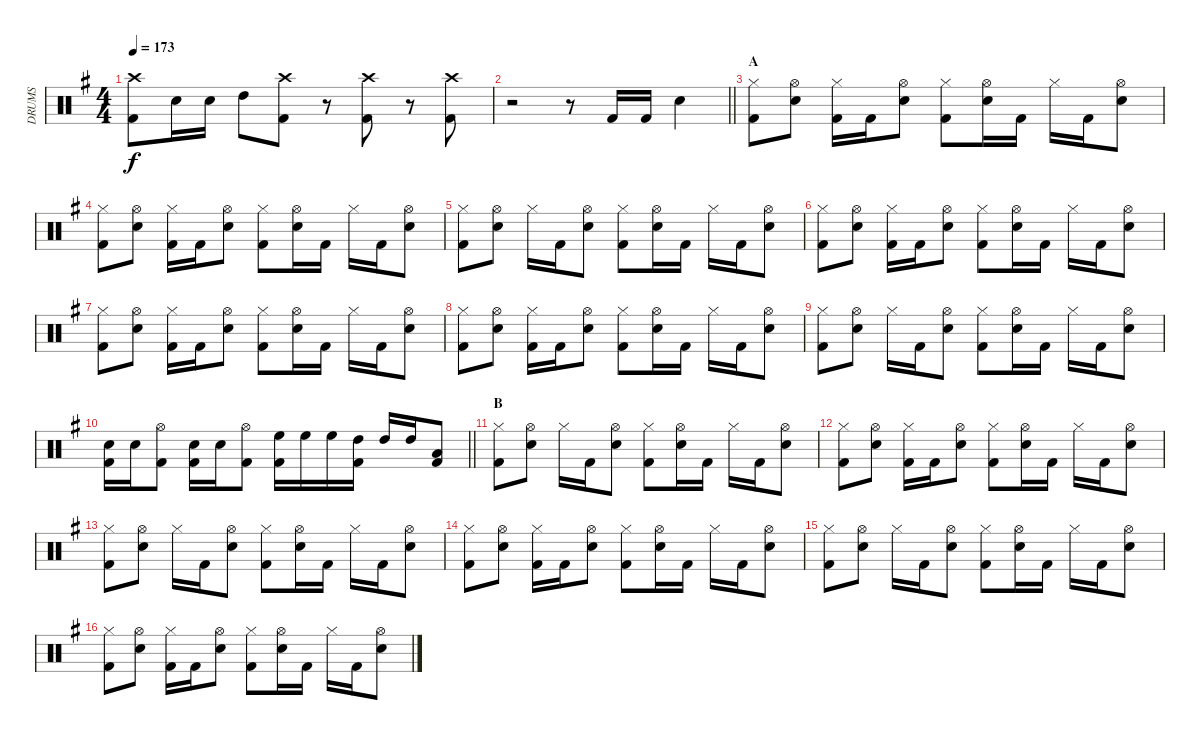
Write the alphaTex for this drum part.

\track ("DRUMS" "DRUMS") {instrument percussion}
\staff {score}
\articulation defaults
\ts (4 4)
\tempo 173
\clef neutral
\ks g
("Crash high (hit)" "Kick (hit) 2").8{dy f} "Snare (hit) 2".16 "Snare (hit) 2".16 "High Tom (hit)".8 ("Crash high (hit)" "Kick (hit) 2").8 r.8 ("Crash high (hit)" "Kick (hit) 2").8 r.8 ("Crash high (hit)" "Kick (hit) 2").8 |
\barLineRight lightlight
r.2 r.8 "Kick (hit) 2".16 "Kick (hit) 2".16 "Snare (hit) 2".4 |
\section ("" "A")
("Hi-Hat (closed)" "Kick (hit) 2").8 ("Hi-Hat (open)" "Snare (hit) 2").8 ("Hi-Hat (closed)" "Kick (hit) 2").16 "Kick (hit) 2".16 ("Hi-Hat (open)" "Snare (hit) 2").8 ("Hi-Hat (closed)" "Kick (hit) 2").8 ("Hi-Hat (open)" "Snare (hit) 2").16 "Kick (hit) 2".16 "Hi-Hat (closed)".16 "Kick (hit) 2".16 ("Hi-Hat (open)" "Snare (hit) 2").8 |
("Hi-Hat (closed)" "Kick (hit) 2").8 ("Hi-Hat (open)" "Snare (hit) 2").8 ("Hi-Hat (closed)" "Kick (hit) 2").16 "Kick (hit) 2".16 ("Hi-Hat (open)" "Snare (hit) 2").8 ("Hi-Hat (closed)" "Kick (hit) 2").8 ("Hi-Hat (open)" "Snare (hit) 2").16 "Kick (hit) 2".16 "Hi-Hat (closed)".16 "Kick (hit) 2".16 ("Hi-Hat (open)" "Snare (hit) 2").8 |
("Hi-Hat (closed)" "Kick (hit) 2").8 ("Hi-Hat (open)" "Snare (hit) 2").8 "Hi-Hat (closed)".16 "Kick (hit) 2".16 ("Hi-Hat (open)" "Snare (hit) 2").8 ("Hi-Hat (closed)" "Kick (hit) 2").8 ("Hi-Hat (open)" "Snare (hit) 2").16 "Kick (hit) 2".16 "Hi-Hat (closed)".16 "Kick (hit) 2".16 ("Hi-Hat (open)" "Snare (hit) 2").8 |
("Hi-Hat (closed)" "Kick (hit) 2").8 ("Hi-Hat (open)" "Snare (hit) 2").8 ("Hi-Hat (closed)" "Kick (hit) 2").16 "Kick (hit) 2".16 ("Hi-Hat (open)" "Snare (hit) 2").8 ("Hi-Hat (closed)" "Kick (hit) 2").8 ("Hi-Hat (open)" "Snare (hit) 2").16 "Kick (hit) 2".16 "Hi-Hat (closed)".16 "Kick (hit) 2".16 ("Hi-Hat (open)" "Snare (hit) 2").8 |
("Hi-Hat (closed)" "Kick (hit) 2").8 ("Hi-Hat (open)" "Snare (hit) 2").8 ("Hi-Hat (closed)" "Kick (hit) 2").16 "Kick (hit) 2".16 ("Hi-Hat (open)" "Snare (hit) 2").8 ("Hi-Hat (closed)" "Kick (hit) 2").8 ("Hi-Hat (open)" "Snare (hit) 2").16 "Kick (hit) 2".16 "Hi-Hat (closed)".16 "Kick (hit) 2".16 ("Hi-Hat (open)" "Snare (hit) 2").8 |
("Hi-Hat (closed)" "Kick (hit) 2").8 ("Hi-Hat (open)" "Snare (hit) 2").8 ("Hi-Hat (closed)" "Kick (hit) 2").16 "Kick (hit) 2".16 ("Hi-Hat (open)" "Snare (hit) 2").8 ("Hi-Hat (closed)" "Kick (hit) 2").8 ("Hi-Hat (open)" "Snare (hit) 2").16 "Kick (hit) 2".16 "Hi-Hat (closed)".16 "Kick (hit) 2".16 ("Hi-Hat (open)" "Snare (hit) 2").8 |
("Hi-Hat (closed)" "Kick (hit) 2").8 ("Hi-Hat (open)" "Snare (hit) 2").8 "Hi-Hat (closed)".16 "Kick (hit) 2".16 ("Hi-Hat (open)" "Snare (hit) 2").8 ("Hi-Hat (closed)" "Kick (hit) 2").8 ("Hi-Hat (open)" "Snare (hit) 2").16 "Kick (hit) 2".16 "Hi-Hat (closed)".16 "Kick (hit) 2".16 ("Hi-Hat (open)" "Snare (hit) 2").8 |
\barLineRight lightlight
("Snare (hit) 2" "Kick (hit) 2").16 "Snare (hit) 2".16 ("Hi-Hat (open)" "Kick (hit) 2").8 ("Snare (hit) 2" "Kick (hit) 2").16 "Snare (hit) 2".16 ("Hi-Hat (open)" "Kick (hit) 2").8 ("High Floor Tom (hit)" "Kick (hit) 2").16 "High Floor Tom (hit)".16 "High Floor Tom (hit)".16 ("High Tom (hit)" "Kick (hit) 2").16 "High Tom (hit)".16 "High Tom (hit)".16 ("Low Floor Tom (hit)" "Kick (hit) 2").8 |
\section ("" "B")
("Hi-Hat (closed)" "Kick (hit) 2").8 ("Hi-Hat (open)" "Snare (hit) 2").8 "Hi-Hat (closed)".16 "Kick (hit) 2".16 ("Hi-Hat (open)" "Snare (hit) 2").8 ("Hi-Hat (closed)" "Kick (hit) 2").8 ("Hi-Hat (open)" "Snare (hit) 2").16 "Kick (hit) 2".16 "Hi-Hat (closed)".16 "Kick (hit) 2".16 ("Hi-Hat (open)" "Snare (hit) 2").8 |
("Hi-Hat (closed)" "Kick (hit) 2").8 ("Hi-Hat (open)" "Snare (hit) 2").8 ("Hi-Hat (closed)" "Kick (hit) 2").16 "Kick (hit) 2".16 ("Hi-Hat (open)" "Snare (hit) 2").8 ("Hi-Hat (closed)" "Kick (hit) 2").8 ("Hi-Hat (open)" "Snare (hit) 2").16 "Kick (hit) 2".16 "Hi-Hat (closed)".16 "Kick (hit) 2".16 ("Hi-Hat (open)" "Snare (hit) 2").8 |
("Hi-Hat (closed)" "Kick (hit) 2").8 ("Hi-Hat (open)" "Snare (hit) 2").8 "Hi-Hat (closed)".16 "Kick (hit) 2".16 ("Hi-Hat (open)" "Snare (hit) 2").8 ("Hi-Hat (closed)" "Kick (hit) 2").8 ("Hi-Hat (open)" "Snare (hit) 2").16 "Kick (hit) 2".16 "Hi-Hat (closed)".16 "Kick (hit) 2".16 ("Hi-Hat (open)" "Snare (hit) 2").8 |
("Hi-Hat (closed)" "Kick (hit) 2").8 ("Hi-Hat (open)" "Snare (hit) 2").8 ("Hi-Hat (closed)" "Kick (hit) 2").16 "Kick (hit) 2".16 ("Hi-Hat (open)" "Snare (hit) 2").8 ("Hi-Hat (closed)" "Kick (hit) 2").8 ("Hi-Hat (open)" "Snare (hit) 2").16 "Kick (hit) 2".16 "Hi-Hat (closed)".16 "Kick (hit) 2".16 ("Hi-Hat (open)" "Snare (hit) 2").8 |
("Hi-Hat (closed)" "Kick (hit) 2").8 ("Hi-Hat (open)" "Snare (hit) 2").8 "Hi-Hat (closed)".16 "Kick (hit) 2".16 ("Hi-Hat (open)" "Snare (hit) 2").8 ("Hi-Hat (closed)" "Kick (hit) 2").8 ("Hi-Hat (open)" "Snare (hit) 2").16 "Kick (hit) 2".16 "Hi-Hat (closed)".16 "Kick (hit) 2".16 ("Hi-Hat (open)" "Snare (hit) 2").8 |
("Hi-Hat (closed)" "Kick (hit) 2").8 ("Hi-Hat (open)" "Snare (hit) 2").8 ("Hi-Hat (closed)" "Kick (hit) 2").16 "Kick (hit) 2".16 ("Hi-Hat (open)" "Snare (hit) 2").8 ("Hi-Hat (closed)" "Kick (hit) 2").8 ("Hi-Hat (open)" "Snare (hit) 2").16 "Kick (hit) 2".16 "Hi-Hat (closed)".16 "Kick (hit) 2".16 ("Hi-Hat (open)" "Snare (hit) 2").8
